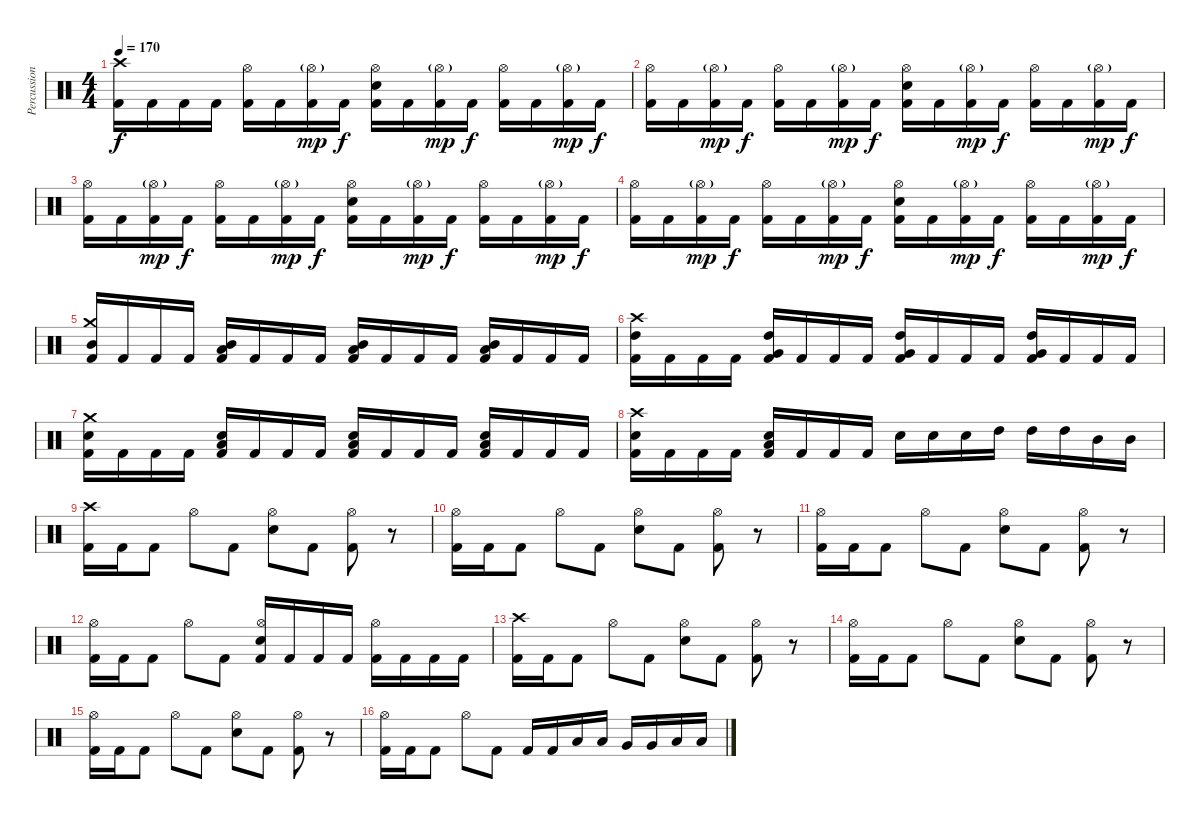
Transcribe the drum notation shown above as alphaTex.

\track ("Percussion" "Percussion") {instrument percussion}
\staff {score}
\articulation defaults
\ts (4 4)
\tempo 170
\clef neutral
\ks c
("Crash high (hit)" "Kick (hit) 2").16{dy f} "Kick (hit) 2".16 "Kick (hit) 2".16 "Kick (hit) 2".16 ("Hi-Hat (open)" "Kick (hit) 2").16 "Kick (hit) 2".16 ("Hi-Hat (open)"{g} "Kick (hit) 2").16{dy mp} "Kick (hit) 2".16{dy f} ("Hi-Hat (open)" "Snare (hit) 2" "Kick (hit) 2").16 "Kick (hit) 2".16 ("Hi-Hat (open)"{g} "Kick (hit) 2").16{dy mp} "Kick (hit) 2".16{dy f} ("Hi-Hat (open)" "Kick (hit) 2").16 "Kick (hit) 2".16 ("Hi-Hat (open)"{g} "Kick (hit) 2").16{dy mp} "Kick (hit) 2".16{dy f} |
("Hi-Hat (open)" "Kick (hit) 2").16 "Kick (hit) 2".16 ("Hi-Hat (open)"{g} "Kick (hit) 2").16{dy mp} "Kick (hit) 2".16{dy f} ("Hi-Hat (open)" "Kick (hit) 2").16 "Kick (hit) 2".16 ("Hi-Hat (open)"{g} "Kick (hit) 2").16{dy mp} "Kick (hit) 2".16{dy f} ("Hi-Hat (open)" "Snare (hit) 2" "Kick (hit) 2").16 "Kick (hit) 2".16 ("Hi-Hat (open)"{g} "Kick (hit) 2").16{dy mp} "Kick (hit) 2".16{dy f} ("Hi-Hat (open)" "Kick (hit) 2").16 "Kick (hit) 2".16 ("Hi-Hat (open)"{g} "Kick (hit) 2").16{dy mp} "Kick (hit) 2".16{dy f} |
("Hi-Hat (open)" "Kick (hit) 2").16 "Kick (hit) 2".16 ("Hi-Hat (open)"{g} "Kick (hit) 2").16{dy mp} "Kick (hit) 2".16{dy f} ("Hi-Hat (open)" "Kick (hit) 2").16 "Kick (hit) 2".16 ("Hi-Hat (open)"{g} "Kick (hit) 2").16{dy mp} "Kick (hit) 2".16{dy f} ("Hi-Hat (open)" "Snare (hit) 2" "Kick (hit) 2").16 "Kick (hit) 2".16 ("Hi-Hat (open)"{g} "Kick (hit) 2").16{dy mp} "Kick (hit) 2".16{dy f} ("Hi-Hat (open)" "Kick (hit) 2").16 "Kick (hit) 2".16 ("Hi-Hat (open)"{g} "Kick (hit) 2").16{dy mp} "Kick (hit) 2".16{dy f} |
("Hi-Hat (open)" "Kick (hit) 2").16 "Kick (hit) 2".16 ("Hi-Hat (open)"{g} "Kick (hit) 2").16{dy mp} "Kick (hit) 2".16{dy f} ("Hi-Hat (open)" "Kick (hit) 2").16 "Kick (hit) 2".16 ("Hi-Hat (open)"{g} "Kick (hit) 2").16{dy mp} "Kick (hit) 2".16{dy f} ("Hi-Hat (open)" "Snare (hit) 2" "Kick (hit) 2").16 "Kick (hit) 2".16 ("Hi-Hat (open)"{g} "Kick (hit) 2").16{dy mp} "Kick (hit) 2".16{dy f} ("Hi-Hat (open)" "Kick (hit) 2").16 "Kick (hit) 2".16 ("Hi-Hat (open)"{g} "Kick (hit) 2").16{dy mp} "Kick (hit) 2".16{dy f} |
("Crash medium (hit)" "Mid Tom (hit)" "Kick (hit) 2").16 "Kick (hit) 2".16 "Kick (hit) 2".16 "Kick (hit) 2".16 ("Low Tom (hit)" "Mid Tom (hit)" "Kick (hit) 2").16 "Kick (hit) 2".16 "Kick (hit) 2".16 "Kick (hit) 2".16 ("Low Tom (hit)" "Mid Tom (hit)" "Kick (hit) 2").16 "Kick (hit) 2".16 "Kick (hit) 2".16 "Kick (hit) 2".16 ("Low Tom (hit)" "Mid Tom (hit)" "Kick (hit) 2").16 "Kick (hit) 2".16 "Kick (hit) 2".16 "Kick (hit) 2".16 |
("Crash high (hit)" "High Tom (hit)" "Kick (hit) 2").16 "Kick (hit) 2".16 "Kick (hit) 2".16 "Kick (hit) 2".16 ("Very Low Tom (hit)" "High Tom (hit)" "Kick (hit) 2").16 "Kick (hit) 2".16 "Kick (hit) 2".16 "Kick (hit) 2".16 ("Very Low Tom (hit)" "High Tom (hit)" "Kick (hit) 2").16 "Kick (hit) 2".16 "Kick (hit) 2".16 "Kick (hit) 2".16 ("Very Low Tom (hit)" "High Tom (hit)" "Kick (hit) 2").16 "Kick (hit) 2".16 "Kick (hit) 2".16 "Kick (hit) 2".16 |
("Crash medium (hit)" "Snare (hit) 2" "Kick (hit) 2").16 "Kick (hit) 2".16 "Kick (hit) 2".16 "Kick (hit) 2".16 ("Low Floor Tom (hit)" "Snare (hit) 2" "Kick (hit) 2").16 "Kick (hit) 2".16 "Kick (hit) 2".16 "Kick (hit) 2".16 ("Low Floor Tom (hit)" "Snare (hit) 2" "Kick (hit) 2").16 "Kick (hit) 2".16 "Kick (hit) 2".16 "Kick (hit) 2".16 ("Low Floor Tom (hit)" "Snare (hit) 2" "Kick (hit) 2").16 "Kick (hit) 2".16 "Kick (hit) 2".16 "Kick (hit) 2".16 |
("Crash high (hit)" "Snare (hit) 2" "Kick (hit) 2").16 "Kick (hit) 2".16 "Kick (hit) 2".16 "Kick (hit) 2".16 ("Low Floor Tom (hit)" "Snare (hit) 2" "Kick (hit) 2").16 "Kick (hit) 2".16 "Kick (hit) 2".16 "Kick (hit) 2".16 "Snare (hit) 2".16 "Snare (hit) 2".16 "Snare (hit) 2".16 "High Tom (hit)".16 "High Tom (hit)".16 "High Tom (hit)".16 "Mid Tom (hit)".16 "Mid Tom (hit)".16 |
("Crash high (hit)" "Kick (hit) 2").16 "Kick (hit) 2".16 "Kick (hit) 2".8 "Hi-Hat (open)".8 "Kick (hit) 2".8 ("Hi-Hat (open)" "Snare (hit) 2").8 "Kick (hit) 2".8 ("Hi-Hat (open)" "Kick (hit) 2").8 r.8 |
("Hi-Hat (open)" "Kick (hit) 2").16 "Kick (hit) 2".16 "Kick (hit) 2".8 "Hi-Hat (open)".8 "Kick (hit) 2".8 ("Hi-Hat (open)" "Snare (hit) 2").8 "Kick (hit) 2".8 ("Hi-Hat (open)" "Kick (hit) 2").8 r.8 |
("Hi-Hat (open)" "Kick (hit) 2").16 "Kick (hit) 2".16 "Kick (hit) 2".8 "Hi-Hat (open)".8 "Kick (hit) 2".8 ("Hi-Hat (open)" "Snare (hit) 2").8 "Kick (hit) 2".8 ("Hi-Hat (open)" "Kick (hit) 2").8 r.8 |
("Hi-Hat (open)" "Kick (hit) 2").16 "Kick (hit) 2".16 "Kick (hit) 2".8 "Hi-Hat (open)".8 "Kick (hit) 2".8 ("Hi-Hat (open)" "Snare (hit) 2" "Kick (hit) 2").16 "Kick (hit) 2".16 "Kick (hit) 2".16 "Kick (hit) 2".16 ("Hi-Hat (open)" "Kick (hit) 2").16 "Kick (hit) 2".16 "Kick (hit) 2".16 "Kick (hit) 2".16 |
("Crash high (hit)" "Kick (hit) 2").16 "Kick (hit) 2".16 "Kick (hit) 2".8 "Hi-Hat (open)".8 "Kick (hit) 2".8 ("Hi-Hat (open)" "Snare (hit) 2").8 "Kick (hit) 2".8 ("Hi-Hat (open)" "Kick (hit) 2").8 r.8 |
("Hi-Hat (open)" "Kick (hit) 2").16 "Kick (hit) 2".16 "Kick (hit) 2".8 "Hi-Hat (open)".8 "Kick (hit) 2".8 ("Hi-Hat (open)" "Snare (hit) 2").8 "Kick (hit) 2".8 ("Hi-Hat (open)" "Kick (hit) 2").8 r.8 |
("Hi-Hat (open)" "Kick (hit) 2").16 "Kick (hit) 2".16 "Kick (hit) 2".8 "Hi-Hat (open)".8 "Kick (hit) 2".8 ("Hi-Hat (open)" "Snare (hit) 2").8 "Kick (hit) 2".8 ("Hi-Hat (open)" "Kick (hit) 2").8 r.8 |
("Hi-Hat (open)" "Kick (hit) 2").16 "Kick (hit) 2".16 "Kick (hit) 2".8 "Hi-Hat (open)".8 "Kick (hit) 2".8 "Kick (hit) 2".16 "Kick (hit) 2".16 "Low Tom (hit)".16 "Low Tom (hit)".16 "Very Low Tom (hit)".16 "Very Low Tom (hit)".16 "Low Floor Tom (hit)".16 "Low Floor Tom (hit)".16
